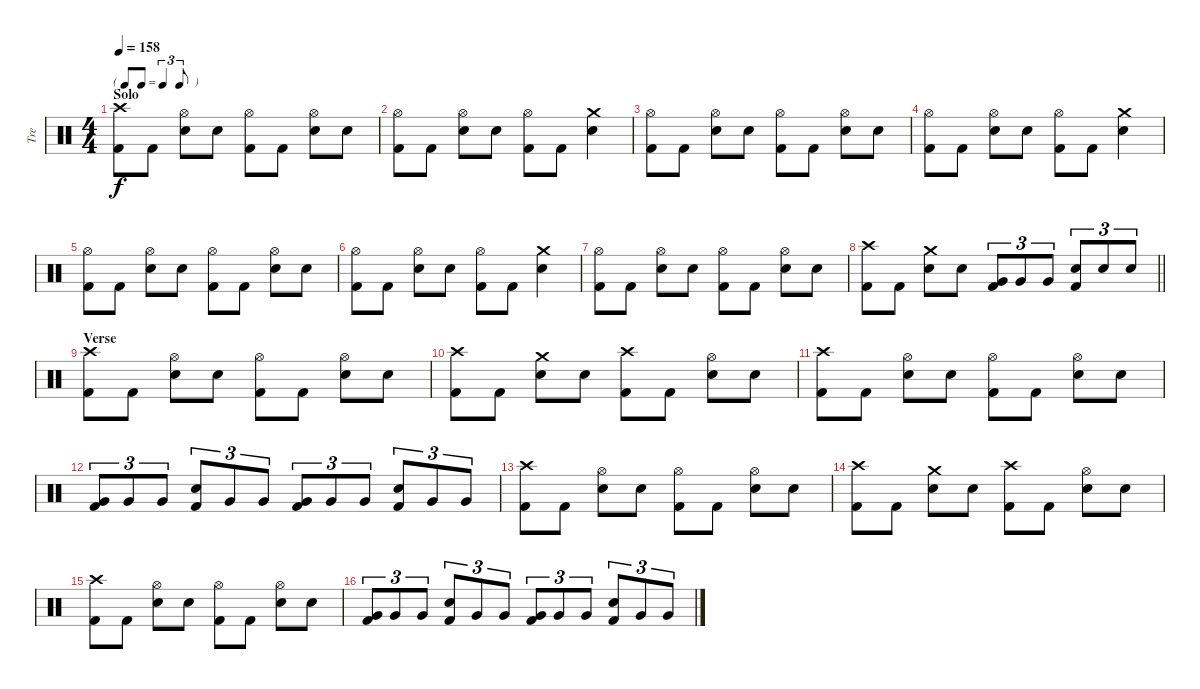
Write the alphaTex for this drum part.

\track ("Tre" "Tre") {instrument percussion}
\staff {score}
\articulation defaults
\ts (4 4)
\tf triplet8th
\section ("" "Solo")
\tempo 158
\clef neutral
\ks c
("Crash high (hit)" "Kick (hit) 2").8{dy f} "Kick (hit) 2".8 ("Hi-Hat (open)" "Snare (hit) 2").8 "Snare (hit) 2".8 ("Hi-Hat (open)" "Kick (hit) 2").8 "Kick (hit) 2".8 ("Hi-Hat (open)" "Snare (hit) 2").8 "Snare (hit) 2".8 |
("Hi-Hat (open)" "Kick (hit) 2").8 "Kick (hit) 2".8 ("Hi-Hat (open)" "Snare (hit) 2").8 "Snare (hit) 2".8 ("Hi-Hat (open)" "Kick (hit) 2").8 "Kick (hit) 2".8 ("Crash medium (hit)" "Snare (hit) 2").4 |
("Hi-Hat (open)" "Kick (hit) 2").8 "Kick (hit) 2".8 ("Hi-Hat (open)" "Snare (hit) 2").8 "Snare (hit) 2".8 ("Hi-Hat (open)" "Kick (hit) 2").8 "Kick (hit) 2".8 ("Hi-Hat (open)" "Snare (hit) 2").8 "Snare (hit) 2".8 |
("Hi-Hat (open)" "Kick (hit) 2").8 "Kick (hit) 2".8 ("Hi-Hat (open)" "Snare (hit) 2").8 "Snare (hit) 2".8 ("Hi-Hat (open)" "Kick (hit) 2").8 "Kick (hit) 2".8 ("Crash medium (hit)" "Snare (hit) 2").4 |
("Hi-Hat (open)" "Kick (hit) 2").8 "Kick (hit) 2".8 ("Hi-Hat (open)" "Snare (hit) 2").8 "Snare (hit) 2".8 ("Hi-Hat (open)" "Kick (hit) 2").8 "Kick (hit) 2".8 ("Hi-Hat (open)" "Snare (hit) 2").8 "Snare (hit) 2".8 |
("Hi-Hat (open)" "Kick (hit) 2").8 "Kick (hit) 2".8 ("Hi-Hat (open)" "Snare (hit) 2").8 "Snare (hit) 2".8 ("Hi-Hat (open)" "Kick (hit) 2").8 "Kick (hit) 2".8 ("Crash medium (hit)" "Snare (hit) 2").4 |
("Hi-Hat (open)" "Kick (hit) 2").8 "Kick (hit) 2".8 ("Hi-Hat (open)" "Snare (hit) 2").8 "Snare (hit) 2".8 ("Hi-Hat (open)" "Kick (hit) 2").8 "Kick (hit) 2".8 ("Hi-Hat (open)" "Snare (hit) 2").8 "Snare (hit) 2".8 |
\barLineRight lightlight
("Crash high (hit)" "Kick (hit) 2").8 "Kick (hit) 2".8 ("Crash medium (hit)" "Snare (hit) 2").8 "Snare (hit) 2".8 ("Very Low Tom (hit)" "Kick (hit) 2").8{tu (3 2)} "Very Low Tom (hit)".8{tu (3 2)} "Very Low Tom (hit)".8{tu (3 2)} ("Snare (hit) 2" "Kick (hit) 2").8{tu (3 2)} "Snare (hit) 2".8{tu (3 2)} "Snare (hit) 2".8{tu (3 2)} |
\section ("" "Verse")
("Crash high (hit)" "Kick (hit) 2").8 "Kick (hit) 2".8 ("Hi-Hat (open)" "Snare (hit) 2").8 "Snare (hit) 2".8 ("Hi-Hat (open)" "Kick (hit) 2").8 "Kick (hit) 2".8 ("Hi-Hat (open)" "Snare (hit) 2").8 "Snare (hit) 2".8 |
("Crash high (hit)" "Kick (hit) 2").8 "Kick (hit) 2".8 ("Crash medium (hit)" "Snare (hit) 2").8 "Snare (hit) 2".8 ("Crash high (hit)" "Kick (hit) 2").8 "Kick (hit) 2".8 ("Hi-Hat (open)" "Snare (hit) 2").8 "Snare (hit) 2".8 |
("Crash high (hit)" "Kick (hit) 2").8 "Kick (hit) 2".8 ("Hi-Hat (open)" "Snare (hit) 2").8 "Snare (hit) 2".8 ("Hi-Hat (open)" "Kick (hit) 2").8 "Kick (hit) 2".8 ("Hi-Hat (open)" "Snare (hit) 2").8 "Snare (hit) 2".8 |
("Very Low Tom (hit)" "Kick (hit) 2").8{tu (3 2)} "Very Low Tom (hit)".8{tu (3 2)} "Very Low Tom (hit)".8{tu (3 2)} ("Snare (hit) 2" "Kick (hit) 2").8{tu (3 2)} "Very Low Tom (hit)".8{tu (3 2)} "Very Low Tom (hit)".8{tu (3 2)} ("Very Low Tom (hit)" "Kick (hit) 2").8{tu (3 2)} "Very Low Tom (hit)".8{tu (3 2)} "Very Low Tom (hit)".8{tu (3 2)} ("Snare (hit) 2" "Kick (hit) 2").8{tu (3 2)} "Very Low Tom (hit)".8{tu (3 2)} "Very Low Tom (hit)".8{tu (3 2)} |
("Crash high (hit)" "Kick (hit) 2").8 "Kick (hit) 2".8 ("Hi-Hat (open)" "Snare (hit) 2").8 "Snare (hit) 2".8 ("Hi-Hat (open)" "Kick (hit) 2").8 "Kick (hit) 2".8 ("Hi-Hat (open)" "Snare (hit) 2").8 "Snare (hit) 2".8 |
("Crash high (hit)" "Kick (hit) 2").8 "Kick (hit) 2".8 ("Crash medium (hit)" "Snare (hit) 2").8 "Snare (hit) 2".8 ("Crash high (hit)" "Kick (hit) 2").8 "Kick (hit) 2".8 ("Hi-Hat (open)" "Snare (hit) 2").8 "Snare (hit) 2".8 |
("Crash high (hit)" "Kick (hit) 2").8 "Kick (hit) 2".8 ("Hi-Hat (open)" "Snare (hit) 2").8 "Snare (hit) 2".8 ("Hi-Hat (open)" "Kick (hit) 2").8 "Kick (hit) 2".8 ("Hi-Hat (open)" "Snare (hit) 2").8 "Snare (hit) 2".8 |
("Very Low Tom (hit)" "Kick (hit) 2").8{tu (3 2)} "Very Low Tom (hit)".8{tu (3 2)} "Very Low Tom (hit)".8{tu (3 2)} ("Snare (hit) 2" "Kick (hit) 2").8{tu (3 2)} "Very Low Tom (hit)".8{tu (3 2)} "Very Low Tom (hit)".8{tu (3 2)} ("Very Low Tom (hit)" "Kick (hit) 2").8{tu (3 2)} "Very Low Tom (hit)".8{tu (3 2)} "Very Low Tom (hit)".8{tu (3 2)} ("Snare (hit) 2" "Kick (hit) 2").8{tu (3 2)} "Very Low Tom (hit)".8{tu (3 2)} "Very Low Tom (hit)".8{tu (3 2)}
